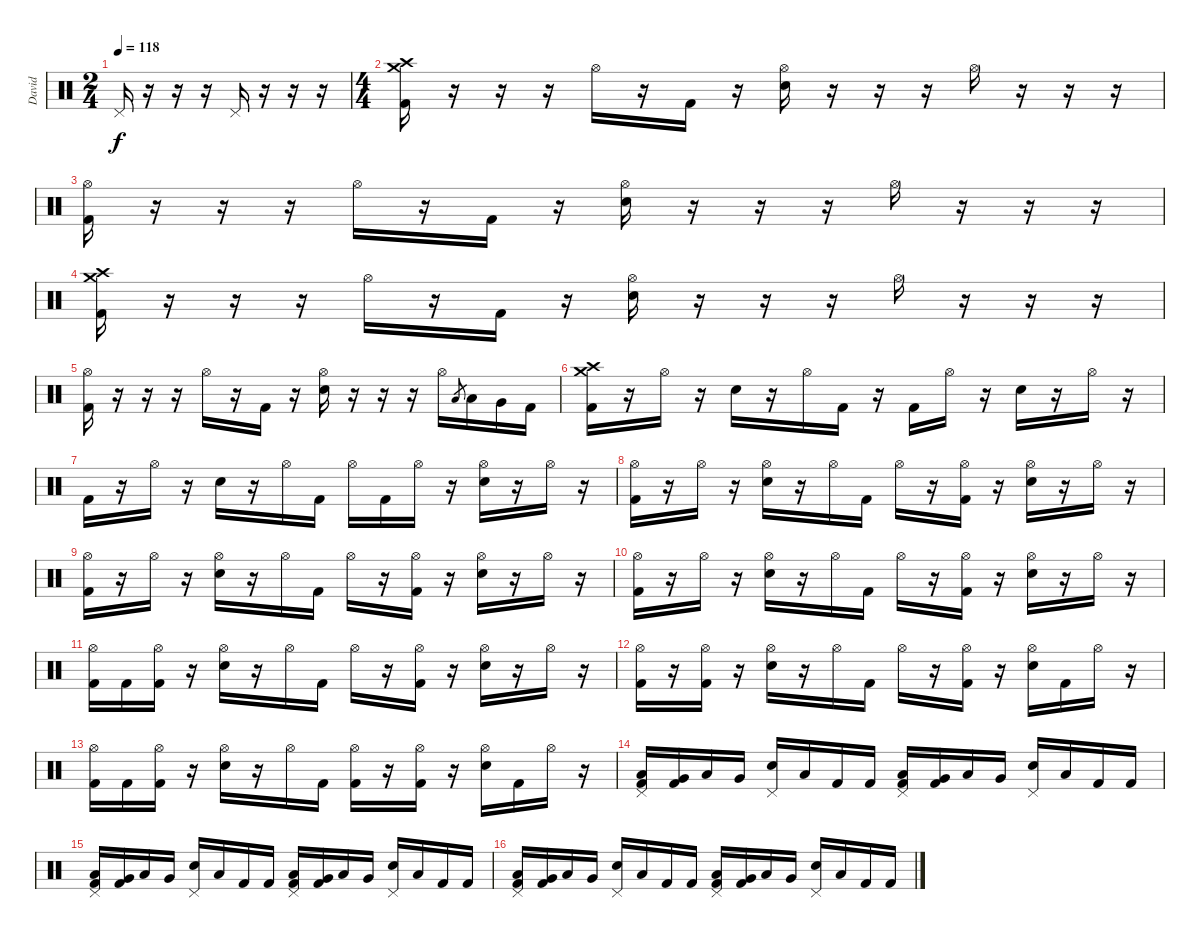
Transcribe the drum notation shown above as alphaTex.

\track ("David" "David") {instrument percussion}
\staff {score}
\articulation defaults
\ts (2 4)
\tempo 118
\clef neutral
\ks c "Pedal Hi-Hat (hit)".16{dy f}
r.16 r.16 r.16 "Pedal Hi-Hat (hit)".16 r.16 r.16 r.16 |
\ts (4 4)
("Crash medium (hit)" "Crash high (hit)" "Kick (hit) 2").16 r.16 r.16 r.16 "Hi-Hat (open)".16 r.16 "Kick (hit) 2".16 r.16 ("Hi-Hat (open)" "Electric Snare (hit)").16 r.16 r.16 r.16 "Hi-Hat (open)".16 r.16 r.16 r.16 |
("Hi-Hat (open)" "Kick (hit) 2").16 r.16 r.16 r.16 "Hi-Hat (open)".16 r.16 "Kick (hit) 2".16 r.16 ("Hi-Hat (open)" "Electric Snare (hit)").16 r.16 r.16 r.16 "Hi-Hat (open)".16 r.16 r.16 r.16 |
("Crash medium (hit)" "Crash high (hit)" "Kick (hit) 2").16 r.16 r.16 r.16 "Hi-Hat (open)".16 r.16 "Kick (hit) 2".16 r.16 ("Hi-Hat (open)" "Electric Snare (hit)").16 r.16 r.16 r.16 "Hi-Hat (open)".16 r.16 r.16 r.16 |
("Hi-Hat (open)" "Kick (hit) 2").16 r.16 r.16 r.16 "Hi-Hat (open)".16 r.16 "Kick (hit) 2".16 r.16 ("Hi-Hat (open)" "Electric Snare (hit)").16 r.16 r.16 r.16 "Hi-Hat (open)".16 "Low Tom (hit)".8{gr} "Low Tom (hit)".16 "Very Low Tom (hit)".16 "Kick (hit) 2".16 |
("Crash medium (hit)" "Crash high (hit)" "Kick (hit) 2").16 r.16 "Hi-Hat (open)".16 r.16 "Electric Snare (hit)".16 r.16 "Hi-Hat (open)".16 "Kick (hit) 2".16 r.16 "Kick (hit) 2".16 "Hi-Hat (open)".16 r.16 "Electric Snare (hit)".16 r.16 "Hi-Hat (open)".16 r.16 |
"Kick (hit) 2".16 r.16 "Hi-Hat (open)".16 r.16 "Electric Snare (hit)".16 r.16 "Hi-Hat (open)".16 "Kick (hit) 2".16 "Hi-Hat (open)".16 "Kick (hit) 2".16 "Hi-Hat (open)".16 r.16 ("Hi-Hat (open)" "Electric Snare (hit)").16 r.16 "Hi-Hat (open)".16 r.16 |
("Hi-Hat (open)" "Kick (hit) 2").16 r.16 "Hi-Hat (open)".16 r.16 ("Hi-Hat (open)" "Electric Snare (hit)").16 r.16 "Hi-Hat (open)".16 "Kick (hit) 2".16 "Hi-Hat (open)".16 r.16 ("Hi-Hat (open)" "Kick (hit) 2").16 r.16 ("Hi-Hat (open)" "Electric Snare (hit)").16 r.16 "Hi-Hat (open)".16 r.16 |
("Hi-Hat (open)" "Kick (hit) 2").16 r.16 "Hi-Hat (open)".16 r.16 ("Hi-Hat (open)" "Electric Snare (hit)").16 r.16 "Hi-Hat (open)".16 "Kick (hit) 2".16 "Hi-Hat (open)".16 r.16 ("Hi-Hat (open)" "Kick (hit) 2").16 r.16 ("Hi-Hat (open)" "Electric Snare (hit)").16 r.16 "Hi-Hat (open)".16 r.16 |
("Hi-Hat (open)" "Kick (hit) 2").16 r.16 "Hi-Hat (open)".16 r.16 ("Hi-Hat (open)" "Electric Snare (hit)").16 r.16 "Hi-Hat (open)".16 "Kick (hit) 2".16 "Hi-Hat (open)".16 r.16 ("Hi-Hat (open)" "Kick (hit) 2").16 r.16 ("Hi-Hat (open)" "Electric Snare (hit)").16 r.16 "Hi-Hat (open)".16 r.16 |
("Hi-Hat (open)" "Kick (hit) 2").16 "Kick (hit) 2".16 ("Hi-Hat (open)" "Kick (hit) 2").16 r.16 ("Hi-Hat (open)" "Electric Snare (hit)").16 r.16 "Hi-Hat (open)".16 "Kick (hit) 2".16 "Hi-Hat (open)".16 r.16 ("Hi-Hat (open)" "Kick (hit) 2").16 r.16 ("Hi-Hat (open)" "Electric Snare (hit)").16 r.16 "Hi-Hat (open)".16 r.16 |
("Hi-Hat (open)" "Kick (hit) 2").16 r.16 ("Hi-Hat (open)" "Kick (hit) 2").16 r.16 ("Hi-Hat (open)" "Electric Snare (hit)").16 r.16 "Hi-Hat (open)".16 "Kick (hit) 2".16 "Hi-Hat (open)".16 r.16 ("Hi-Hat (open)" "Kick (hit) 2").16 r.16 ("Hi-Hat (open)" "Electric Snare (hit)").16 "Kick (hit) 2".16 "Hi-Hat (open)".16 r.16 |
("Hi-Hat (open)" "Kick (hit) 2").16 "Kick (hit) 2".16 ("Hi-Hat (open)" "Kick (hit) 2").16 r.16 ("Hi-Hat (open)" "Electric Snare (hit)").16 r.16 "Hi-Hat (open)".16 "Kick (hit) 2".16 ("Hi-Hat (open)" "Kick (hit) 2").16 r.16 ("Hi-Hat (open)" "Kick (hit) 2").16 r.16 ("Hi-Hat (open)" "Electric Snare (hit)").16 "Kick (hit) 2".16 "Hi-Hat (open)".16 r.16 |
("Pedal Hi-Hat (hit)" "Low Tom (hit)" "Kick (hit) 2").16 ("Very Low Tom (hit)" "Kick (hit) 2").16 "Low Floor Tom (hit)".16 "Very Low Tom (hit)".16 ("Pedal Hi-Hat (hit)" "Electric Snare (hit)").16 "Low Floor Tom (hit)".16 "Kick (hit) 2".16 "Kick (hit) 2".16 ("Pedal Hi-Hat (hit)" "Low Tom (hit)" "Kick (hit) 2").16 ("Very Low Tom (hit)" "Kick (hit) 2").16 "Low Floor Tom (hit)".16 "Very Low Tom (hit)".16 ("Pedal Hi-Hat (hit)" "Electric Snare (hit)").16 "Low Floor Tom (hit)".16 "Kick (hit) 2".16 "Kick (hit) 2".16 |
("Pedal Hi-Hat (hit)" "Low Tom (hit)" "Kick (hit) 2").16 ("Very Low Tom (hit)" "Kick (hit) 2").16 "Low Floor Tom (hit)".16 "Very Low Tom (hit)".16 ("Pedal Hi-Hat (hit)" "Electric Snare (hit)").16 "Low Floor Tom (hit)".16 "Kick (hit) 2".16 "Kick (hit) 2".16 ("Pedal Hi-Hat (hit)" "Low Tom (hit)" "Kick (hit) 2").16 ("Very Low Tom (hit)" "Kick (hit) 2").16 "Low Floor Tom (hit)".16 "Very Low Tom (hit)".16 ("Pedal Hi-Hat (hit)" "Electric Snare (hit)").16 "Low Floor Tom (hit)".16 "Kick (hit) 2".16 "Kick (hit) 2".16 |
("Pedal Hi-Hat (hit)" "Low Tom (hit)" "Kick (hit) 2").16 ("Very Low Tom (hit)" "Kick (hit) 2").16 "Low Floor Tom (hit)".16 "Very Low Tom (hit)".16 ("Pedal Hi-Hat (hit)" "Electric Snare (hit)").16 "Low Floor Tom (hit)".16 "Kick (hit) 2".16 "Kick (hit) 2".16 ("Pedal Hi-Hat (hit)" "Low Tom (hit)" "Kick (hit) 2").16 ("Very Low Tom (hit)" "Kick (hit) 2").16 "Low Floor Tom (hit)".16 "Very Low Tom (hit)".16 ("Pedal Hi-Hat (hit)" "Electric Snare (hit)").16 "Low Floor Tom (hit)".16 "Kick (hit) 2".16 "Kick (hit) 2".16
